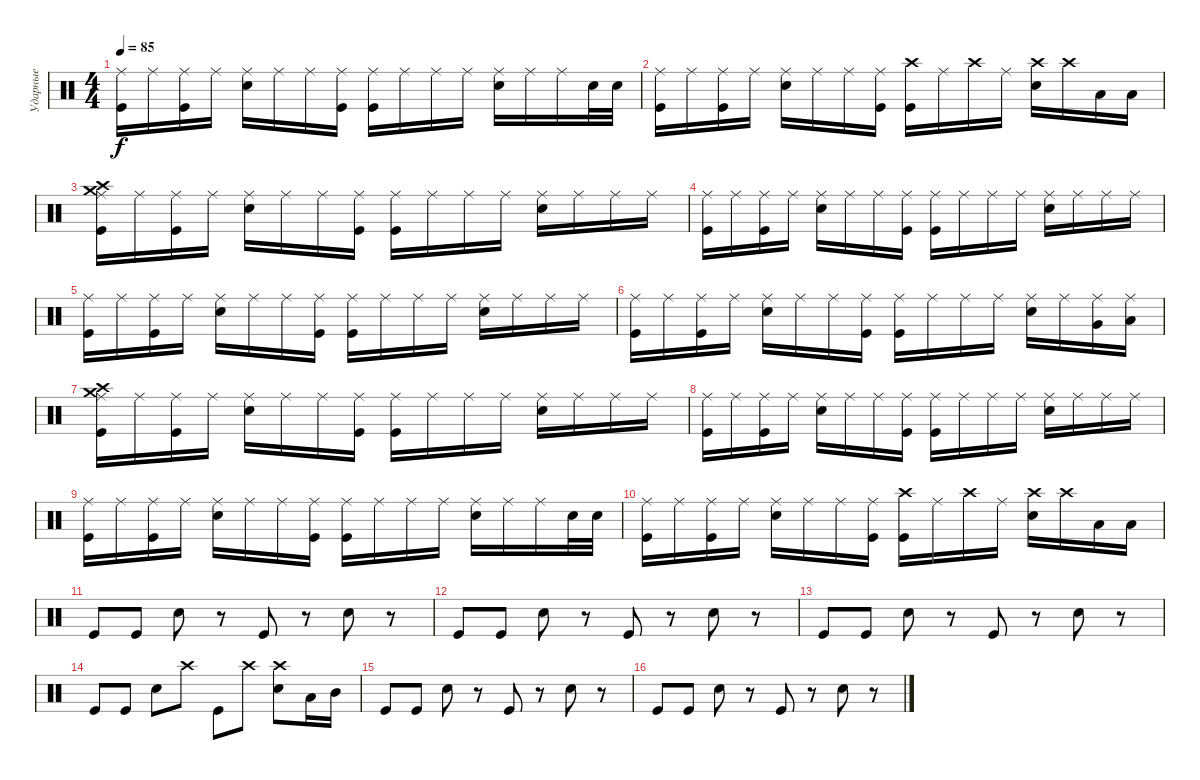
\track ("Ударные" "Ударные") {instrument percussion}
\staff {score}
\articulation defaults
\ts (4 4)
\tempo 85
\clef neutral
\ks c
("Ride (middle)" "Kick (hit)").16{dy f} "Ride (middle)".16 ("Ride (middle)" "Kick (hit)").16 "Ride (middle)".16 ("Ride (middle)" "Electric Snare (hit)").16 "Ride (middle)".16 "Ride (middle)".16 ("Ride (middle)" "Kick (hit)").16 ("Ride (middle)" "Kick (hit)").16 "Ride (middle)".16 "Ride (middle)".16 "Ride (middle)".16 ("Ride (middle)" "Electric Snare (hit)").16 "Ride (middle)".16 "Ride (middle)".16 "Electric Snare (hit)".32 "Electric Snare (hit)".32 |
("Ride (middle)" "Kick (hit)").16 "Ride (middle)".16 ("Ride (middle)" "Kick (hit)").16 "Ride (middle)".16 ("Ride (middle)" "Electric Snare (hit)").16 "Ride (middle)".16 "Ride (middle)".16 ("Ride (middle)" "Kick (hit)").16 ("Crash high (hit)" "Kick (hit)").16 "Ride (middle)".16 "Crash high (hit)".16 "Ride (middle)".16 ("Crash high (hit)" "Electric Snare (hit)").16 "Crash high (hit)".16 "Low Floor Tom (hit)".16 "Low Floor Tom (hit)".16 |
("Crash high (hit)" "Crash medium (hit)" "Ride (middle)" "Kick (hit)").16 "Ride (middle)".16 ("Ride (middle)" "Kick (hit)").16 "Ride (middle)".16 ("Ride (middle)" "Electric Snare (hit)").16 "Ride (middle)".16 "Ride (middle)".16 ("Ride (middle)" "Kick (hit)").16 ("Ride (middle)" "Kick (hit)").16 "Ride (middle)".16 "Ride (middle)".16 "Ride (middle)".16 ("Ride (middle)" "Electric Snare (hit)").16 "Ride (middle)".16 "Ride (middle)".16 "Ride (middle)".16 |
("Ride (middle)" "Kick (hit)").16 "Ride (middle)".16 ("Ride (middle)" "Kick (hit)").16 "Ride (middle)".16 ("Ride (middle)" "Electric Snare (hit)").16 "Ride (middle)".16 "Ride (middle)".16 ("Ride (middle)" "Kick (hit)").16 ("Ride (middle)" "Kick (hit)").16 "Ride (middle)".16 "Ride (middle)".16 "Ride (middle)".16 ("Ride (middle)" "Electric Snare (hit)").16 "Ride (middle)".16 "Ride (middle)".16 "Ride (middle)".16 |
("Ride (middle)" "Kick (hit)").16 "Ride (middle)".16 ("Ride (middle)" "Kick (hit)").16 "Ride (middle)".16 ("Ride (middle)" "Electric Snare (hit)").16 "Ride (middle)".16 "Ride (middle)".16 ("Ride (middle)" "Kick (hit)").16 ("Ride (middle)" "Kick (hit)").16 "Ride (middle)".16 "Ride (middle)".16 "Ride (middle)".16 ("Ride (middle)" "Electric Snare (hit)").16 "Ride (middle)".16 "Ride (middle)".16 "Ride (middle)".16 |
("Ride (middle)" "Kick (hit)").16 "Ride (middle)".16 ("Ride (middle)" "Kick (hit)").16 "Ride (middle)".16 ("Ride (middle)" "Electric Snare (hit)").16 "Ride (middle)".16 "Ride (middle)".16 ("Ride (middle)" "Kick (hit)").16 ("Ride (middle)" "Kick (hit)").16 "Ride (middle)".16 "Ride (middle)".16 "Ride (middle)".16 ("Ride (middle)" "Electric Snare (hit)").16 "Ride (middle)".16 ("Ride (middle)" "Very Low Tom (hit)").16 ("Ride (middle)" "Low Floor Tom (hit)").16 |
("Crash high (hit)" "Crash medium (hit)" "Ride (middle)" "Kick (hit)").16 "Ride (middle)".16 ("Ride (middle)" "Kick (hit)").16 "Ride (middle)".16 ("Ride (middle)" "Electric Snare (hit)").16 "Ride (middle)".16 "Ride (middle)".16 ("Ride (middle)" "Kick (hit)").16 ("Ride (middle)" "Kick (hit)").16 "Ride (middle)".16 "Ride (middle)".16 "Ride (middle)".16 ("Ride (middle)" "Electric Snare (hit)").16 "Ride (middle)".16 "Ride (middle)".16 "Ride (middle)".16 |
("Ride (middle)" "Kick (hit)").16 "Ride (middle)".16 ("Ride (middle)" "Kick (hit)").16 "Ride (middle)".16 ("Ride (middle)" "Electric Snare (hit)").16 "Ride (middle)".16 "Ride (middle)".16 ("Ride (middle)" "Kick (hit)").16 ("Ride (middle)" "Kick (hit)").16 "Ride (middle)".16 "Ride (middle)".16 "Ride (middle)".16 ("Ride (middle)" "Electric Snare (hit)").16 "Ride (middle)".16 "Ride (middle)".16 "Ride (middle)".16 |
("Ride (middle)" "Kick (hit)").16 "Ride (middle)".16 ("Ride (middle)" "Kick (hit)").16 "Ride (middle)".16 ("Ride (middle)" "Electric Snare (hit)").16 "Ride (middle)".16 "Ride (middle)".16 ("Ride (middle)" "Kick (hit)").16 ("Ride (middle)" "Kick (hit)").16 "Ride (middle)".16 "Ride (middle)".16 "Ride (middle)".16 ("Ride (middle)" "Electric Snare (hit)").16 "Ride (middle)".16 "Ride (middle)".16 "Electric Snare (hit)".32 "Electric Snare (hit)".32 |
("Ride (middle)" "Kick (hit)").16 "Ride (middle)".16 ("Ride (middle)" "Kick (hit)").16 "Ride (middle)".16 ("Ride (middle)" "Electric Snare (hit)").16 "Ride (middle)".16 "Ride (middle)".16 ("Ride (middle)" "Kick (hit)").16 ("Crash high (hit)" "Kick (hit)").16 "Ride (middle)".16 "Crash high (hit)".16 "Ride (middle)".16 ("Crash high (hit)" "Electric Snare (hit)").16 "Crash high (hit)".16 "Low Floor Tom (hit)".16 "Low Floor Tom (hit)".16 |
"Kick (hit)".8 "Kick (hit)".8 "Hand Clap (hit)".8 r.8 "Kick (hit)".8 r.8 "Hand Clap (hit)".8 r.8 |
"Kick (hit)".8 "Kick (hit)".8 "Hand Clap (hit)".8 r.8 "Kick (hit)".8 r.8 "Hand Clap (hit)".8 r.8 |
"Kick (hit)".8 "Kick (hit)".8 "Hand Clap (hit)".8 r.8 "Kick (hit)".8 r.8 "Hand Clap (hit)".8 r.8 |
"Kick (hit)".8 "Kick (hit)".8 "Hand Clap (hit)".8 "Crash high (hit)".8 "Kick (hit)".8 "Crash high (hit)".8 ("Crash high (hit)" "Hand Clap (hit)").8 "Low Floor Tom (hit)".16 "Mid Tom (hit)".16 |
"Kick (hit)".8 "Kick (hit)".8 "Hand Clap (hit)".8 r.8 "Kick (hit)".8 r.8 "Hand Clap (hit)".8 r.8 |
"Kick (hit)".8 "Kick (hit)".8 "Hand Clap (hit)".8 r.8 "Kick (hit)".8 r.8 "Hand Clap (hit)".8 r.8
